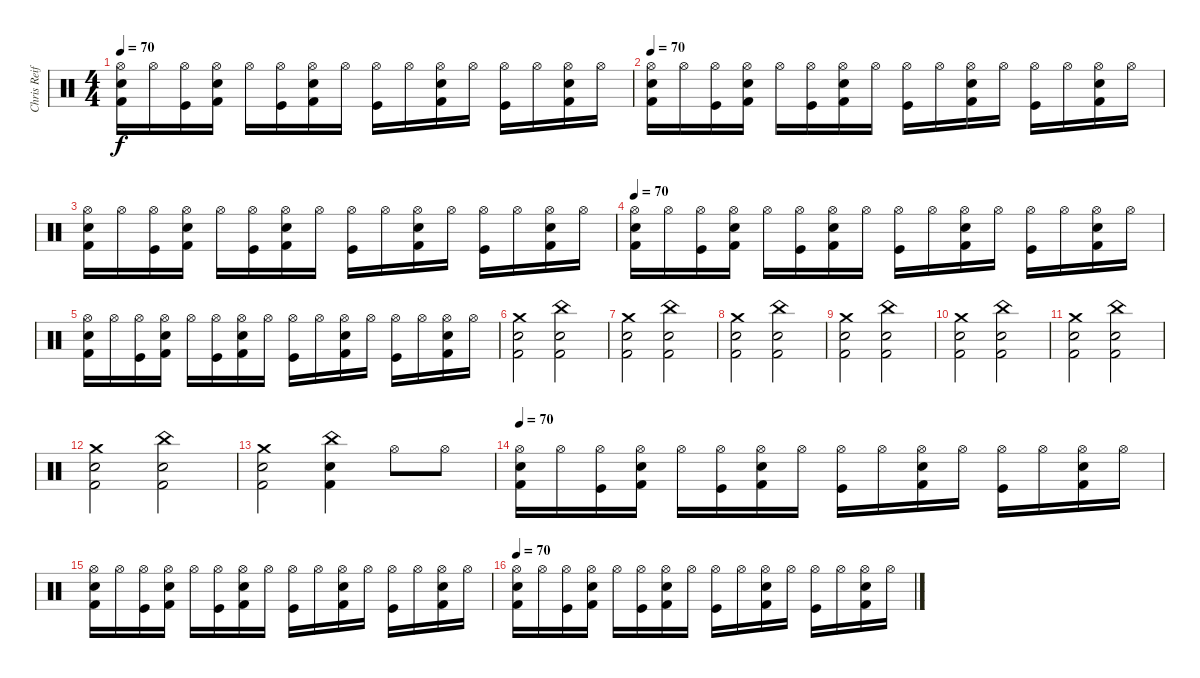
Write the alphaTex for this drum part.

\track ("Chris Reifert" "Chris Reif") {instrument percussion}
\staff {score}
\articulation defaults
\ts (4 4)
\tempo 70
\clef neutral
\ks c
("Hi-Hat (open)" "Snare (hit) 2" "Kick (hit) 2").16{dy f} "Hi-Hat (open)".16 ("Hi-Hat (open)" "Kick (hit)").16 ("Hi-Hat (open)" "Snare (hit) 2" "Kick (hit) 2").16 "Hi-Hat (open)".16 ("Hi-Hat (open)" "Kick (hit)").16 ("Hi-Hat (open)" "Snare (hit) 2" "Kick (hit) 2").16 "Hi-Hat (open)".16 ("Hi-Hat (open)" "Kick (hit)").16 "Hi-Hat (open)".16 ("Hi-Hat (open)" "Snare (hit) 2" "Kick (hit) 2").16 "Hi-Hat (open)".16 ("Hi-Hat (open)" "Kick (hit)").16 "Hi-Hat (open)".16 ("Hi-Hat (open)" "Snare (hit) 2" "Kick (hit) 2").16 "Hi-Hat (open)".16 |
\tempo 70
("Hi-Hat (open)" "Snare (hit) 2" "Kick (hit) 2").16 "Hi-Hat (open)".16 ("Hi-Hat (open)" "Kick (hit)").16 ("Hi-Hat (open)" "Snare (hit) 2" "Kick (hit) 2").16 "Hi-Hat (open)".16 ("Hi-Hat (open)" "Kick (hit)").16 ("Hi-Hat (open)" "Snare (hit) 2" "Kick (hit) 2").16 "Hi-Hat (open)".16 ("Hi-Hat (open)" "Kick (hit)").16 "Hi-Hat (open)".16 ("Hi-Hat (open)" "Snare (hit) 2" "Kick (hit) 2").16 "Hi-Hat (open)".16 ("Hi-Hat (open)" "Kick (hit)").16 "Hi-Hat (open)".16 ("Hi-Hat (open)" "Snare (hit) 2" "Kick (hit) 2").16 "Hi-Hat (open)".16 |
("Hi-Hat (open)" "Snare (hit) 2" "Kick (hit) 2").16 "Hi-Hat (open)".16 ("Hi-Hat (open)" "Kick (hit)").16 ("Hi-Hat (open)" "Snare (hit) 2" "Kick (hit) 2").16 "Hi-Hat (open)".16 ("Hi-Hat (open)" "Kick (hit)").16 ("Hi-Hat (open)" "Snare (hit) 2" "Kick (hit) 2").16 "Hi-Hat (open)".16 ("Hi-Hat (open)" "Kick (hit)").16 "Hi-Hat (open)".16 ("Hi-Hat (open)" "Snare (hit) 2" "Kick (hit) 2").16 "Hi-Hat (open)".16 ("Hi-Hat (open)" "Kick (hit)").16 "Hi-Hat (open)".16 ("Hi-Hat (open)" "Snare (hit) 2" "Kick (hit) 2").16 "Hi-Hat (open)".16 |
\tempo 70
("Hi-Hat (open)" "Snare (hit) 2" "Kick (hit) 2").16 "Hi-Hat (open)".16 ("Hi-Hat (open)" "Kick (hit)").16 ("Hi-Hat (open)" "Snare (hit) 2" "Kick (hit) 2").16 "Hi-Hat (open)".16 ("Hi-Hat (open)" "Kick (hit)").16 ("Hi-Hat (open)" "Snare (hit) 2" "Kick (hit) 2").16 "Hi-Hat (open)".16 ("Hi-Hat (open)" "Kick (hit)").16 "Hi-Hat (open)".16 ("Hi-Hat (open)" "Snare (hit) 2" "Kick (hit) 2").16 "Hi-Hat (open)".16 ("Hi-Hat (open)" "Kick (hit)").16 "Hi-Hat (open)".16 ("Hi-Hat (open)" "Snare (hit) 2" "Kick (hit) 2").16 "Hi-Hat (open)".16 |
("Hi-Hat (open)" "Snare (hit) 2" "Kick (hit) 2").16 "Hi-Hat (open)".16 ("Hi-Hat (open)" "Kick (hit)").16 ("Hi-Hat (open)" "Snare (hit) 2" "Kick (hit) 2").16 "Hi-Hat (open)".16 ("Hi-Hat (open)" "Kick (hit)").16 ("Hi-Hat (open)" "Snare (hit) 2" "Kick (hit) 2").16 "Hi-Hat (open)".16 ("Hi-Hat (open)" "Kick (hit)").16 "Hi-Hat (open)".16 ("Hi-Hat (open)" "Snare (hit) 2" "Kick (hit) 2").16 "Hi-Hat (open)".16 ("Hi-Hat (open)" "Kick (hit)").16 "Hi-Hat (open)".16 ("Hi-Hat (open)" "Snare (hit) 2" "Kick (hit) 2").16 "Hi-Hat (open)".16 |
("Crash medium (hit)" "Snare (hit) 2" "Kick (hit) 2").2 ("China (hit)" "Snare (hit) 2" "Kick (hit) 2").2 |
("Crash medium (hit)" "Snare (hit) 2" "Kick (hit) 2").2 ("China (hit)" "Snare (hit) 2" "Kick (hit) 2").2 |
("Crash medium (hit)" "Snare (hit) 2" "Kick (hit) 2").2 ("China (hit)" "Snare (hit) 2" "Kick (hit) 2").2 |
("Crash medium (hit)" "Snare (hit) 2" "Kick (hit) 2").2 ("China (hit)" "Snare (hit) 2" "Kick (hit) 2").2 |
("Crash medium (hit)" "Snare (hit) 2" "Kick (hit) 2").2 ("China (hit)" "Snare (hit) 2" "Kick (hit) 2").2 |
("Crash medium (hit)" "Snare (hit) 2" "Kick (hit) 2").2 ("China (hit)" "Snare (hit) 2" "Kick (hit) 2").2 |
("Crash medium (hit)" "Snare (hit) 2" "Kick (hit) 2").2 ("China (hit)" "Snare (hit) 2" "Kick (hit) 2").2 |
("Crash medium (hit)" "Snare (hit) 2" "Kick (hit) 2").2 ("China (hit)" "Snare (hit) 2" "Kick (hit) 2").4 "Hi-Hat (open)".8 "Hi-Hat (open)".8 |
\tempo 70
("Hi-Hat (open)" "Snare (hit) 2" "Kick (hit) 2").16 "Hi-Hat (open)".16 ("Hi-Hat (open)" "Kick (hit)").16 ("Hi-Hat (open)" "Snare (hit) 2" "Kick (hit) 2").16 "Hi-Hat (open)".16 ("Hi-Hat (open)" "Kick (hit)").16 ("Hi-Hat (open)" "Snare (hit) 2" "Kick (hit) 2").16 "Hi-Hat (open)".16 ("Hi-Hat (open)" "Kick (hit)").16 "Hi-Hat (open)".16 ("Hi-Hat (open)" "Snare (hit) 2" "Kick (hit) 2").16 "Hi-Hat (open)".16 ("Hi-Hat (open)" "Kick (hit)").16 "Hi-Hat (open)".16 ("Hi-Hat (open)" "Snare (hit) 2" "Kick (hit) 2").16 "Hi-Hat (open)".16 |
("Hi-Hat (open)" "Snare (hit) 2" "Kick (hit) 2").16 "Hi-Hat (open)".16 ("Hi-Hat (open)" "Kick (hit)").16 ("Hi-Hat (open)" "Snare (hit) 2" "Kick (hit) 2").16 "Hi-Hat (open)".16 ("Hi-Hat (open)" "Kick (hit)").16 ("Hi-Hat (open)" "Snare (hit) 2" "Kick (hit) 2").16 "Hi-Hat (open)".16 ("Hi-Hat (open)" "Kick (hit)").16 "Hi-Hat (open)".16 ("Hi-Hat (open)" "Snare (hit) 2" "Kick (hit) 2").16 "Hi-Hat (open)".16 ("Hi-Hat (open)" "Kick (hit)").16 "Hi-Hat (open)".16 ("Hi-Hat (open)" "Snare (hit) 2" "Kick (hit) 2").16 "Hi-Hat (open)".16 |
\tempo 70
("Hi-Hat (open)" "Snare (hit) 2" "Kick (hit) 2").16 "Hi-Hat (open)".16 ("Hi-Hat (open)" "Kick (hit)").16 ("Hi-Hat (open)" "Snare (hit) 2" "Kick (hit) 2").16 "Hi-Hat (open)".16 ("Hi-Hat (open)" "Kick (hit)").16 ("Hi-Hat (open)" "Snare (hit) 2" "Kick (hit) 2").16 "Hi-Hat (open)".16 ("Hi-Hat (open)" "Kick (hit)").16 "Hi-Hat (open)".16 ("Hi-Hat (open)" "Snare (hit) 2" "Kick (hit) 2").16 "Hi-Hat (open)".16 ("Hi-Hat (open)" "Kick (hit)").16 "Hi-Hat (open)".16 ("Hi-Hat (open)" "Snare (hit) 2" "Kick (hit) 2").16 "Hi-Hat (open)".16
